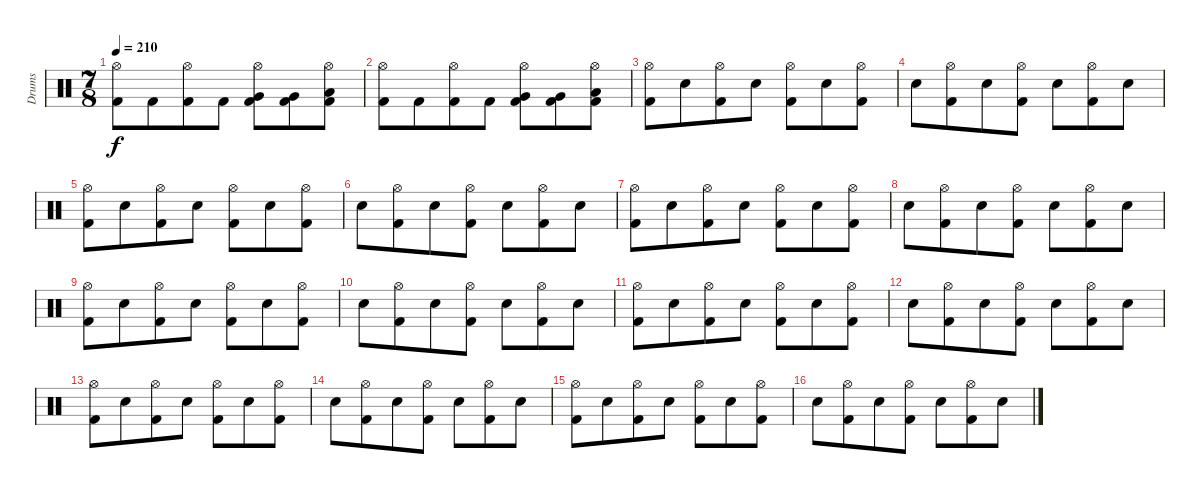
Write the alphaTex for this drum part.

\track ("Drums" "Drums") {instrument percussion}
\staff {score}
\articulation defaults
\ts (7 8)
\tempo 210
\clef neutral
\ks c
("Hi-Hat (open)" "Kick (hit) 2").8{dy f} "Kick (hit) 2".8 ("Hi-Hat (open)" "Kick (hit) 2").8 "Kick (hit) 2".8 ("Hi-Hat (open)" "Very Low Tom (hit)" "Kick (hit) 2").8 ("Very Low Tom (hit)" "Kick (hit) 2").8 ("Hi-Hat (open)" "Low Tom (hit)" "Kick (hit) 2").8 |
("Hi-Hat (open)" "Kick (hit) 2").8 "Kick (hit) 2".8 ("Hi-Hat (open)" "Kick (hit) 2").8 "Kick (hit) 2".8 ("Hi-Hat (open)" "Very Low Tom (hit)" "Kick (hit) 2").8 ("Very Low Tom (hit)" "Kick (hit) 2").8 ("Hi-Hat (open)" "Low Tom (hit)" "Kick (hit) 2").8 |
("Hi-Hat (open)" "Kick (hit) 2").8 "Electric Snare (hit)".8 ("Hi-Hat (open)" "Kick (hit) 2").8 "Electric Snare (hit)".8 ("Hi-Hat (open)" "Kick (hit) 2").8 "Electric Snare (hit)".8 ("Hi-Hat (open)" "Kick (hit) 2").8 |
"Electric Snare (hit)".8 ("Hi-Hat (open)" "Kick (hit) 2").8 "Electric Snare (hit)".8 ("Hi-Hat (open)" "Kick (hit) 2").8 "Electric Snare (hit)".8 ("Hi-Hat (open)" "Kick (hit) 2").8 "Electric Snare (hit)".8 |
("Hi-Hat (open)" "Kick (hit) 2").8 "Electric Snare (hit)".8 ("Hi-Hat (open)" "Kick (hit) 2").8 "Electric Snare (hit)".8 ("Hi-Hat (open)" "Kick (hit) 2").8 "Electric Snare (hit)".8 ("Hi-Hat (open)" "Kick (hit) 2").8 |
"Electric Snare (hit)".8 ("Hi-Hat (open)" "Kick (hit) 2").8 "Electric Snare (hit)".8 ("Hi-Hat (open)" "Kick (hit) 2").8 "Electric Snare (hit)".8 ("Hi-Hat (open)" "Kick (hit) 2").8 "Electric Snare (hit)".8 |
("Hi-Hat (open)" "Kick (hit) 2").8 "Electric Snare (hit)".8 ("Hi-Hat (open)" "Kick (hit) 2").8 "Electric Snare (hit)".8 ("Hi-Hat (open)" "Kick (hit) 2").8 "Electric Snare (hit)".8 ("Hi-Hat (open)" "Kick (hit) 2").8 |
"Electric Snare (hit)".8 ("Hi-Hat (open)" "Kick (hit) 2").8 "Electric Snare (hit)".8 ("Hi-Hat (open)" "Kick (hit) 2").8 "Electric Snare (hit)".8 ("Hi-Hat (open)" "Kick (hit) 2").8 "Electric Snare (hit)".8 |
("Hi-Hat (open)" "Kick (hit) 2").8 "Electric Snare (hit)".8 ("Hi-Hat (open)" "Kick (hit) 2").8 "Electric Snare (hit)".8 ("Hi-Hat (open)" "Kick (hit) 2").8 "Electric Snare (hit)".8 ("Hi-Hat (open)" "Kick (hit) 2").8 |
"Electric Snare (hit)".8 ("Hi-Hat (open)" "Kick (hit) 2").8 "Electric Snare (hit)".8 ("Hi-Hat (open)" "Kick (hit) 2").8 "Electric Snare (hit)".8 ("Hi-Hat (open)" "Kick (hit) 2").8 "Electric Snare (hit)".8 |
("Hi-Hat (open)" "Kick (hit) 2").8 "Electric Snare (hit)".8 ("Hi-Hat (open)" "Kick (hit) 2").8 "Electric Snare (hit)".8 ("Hi-Hat (open)" "Kick (hit) 2").8 "Electric Snare (hit)".8 ("Hi-Hat (open)" "Kick (hit) 2").8 |
"Electric Snare (hit)".8 ("Hi-Hat (open)" "Kick (hit) 2").8 "Electric Snare (hit)".8 ("Hi-Hat (open)" "Kick (hit) 2").8 "Electric Snare (hit)".8 ("Hi-Hat (open)" "Kick (hit) 2").8 "Electric Snare (hit)".8 |
("Hi-Hat (open)" "Kick (hit) 2").8 "Electric Snare (hit)".8 ("Hi-Hat (open)" "Kick (hit) 2").8 "Electric Snare (hit)".8 ("Hi-Hat (open)" "Kick (hit) 2").8 "Electric Snare (hit)".8 ("Hi-Hat (open)" "Kick (hit) 2").8 |
"Electric Snare (hit)".8 ("Hi-Hat (open)" "Kick (hit) 2").8 "Electric Snare (hit)".8 ("Hi-Hat (open)" "Kick (hit) 2").8 "Electric Snare (hit)".8 ("Hi-Hat (open)" "Kick (hit) 2").8 "Electric Snare (hit)".8 |
("Hi-Hat (open)" "Kick (hit) 2").8 "Electric Snare (hit)".8 ("Hi-Hat (open)" "Kick (hit) 2").8 "Electric Snare (hit)".8 ("Hi-Hat (open)" "Kick (hit) 2").8 "Electric Snare (hit)".8 ("Hi-Hat (open)" "Kick (hit) 2").8 |
"Electric Snare (hit)".8 ("Hi-Hat (open)" "Kick (hit) 2").8 "Electric Snare (hit)".8 ("Hi-Hat (open)" "Kick (hit) 2").8 "Electric Snare (hit)".8 ("Hi-Hat (open)" "Kick (hit) 2").8 "Electric Snare (hit)".8
